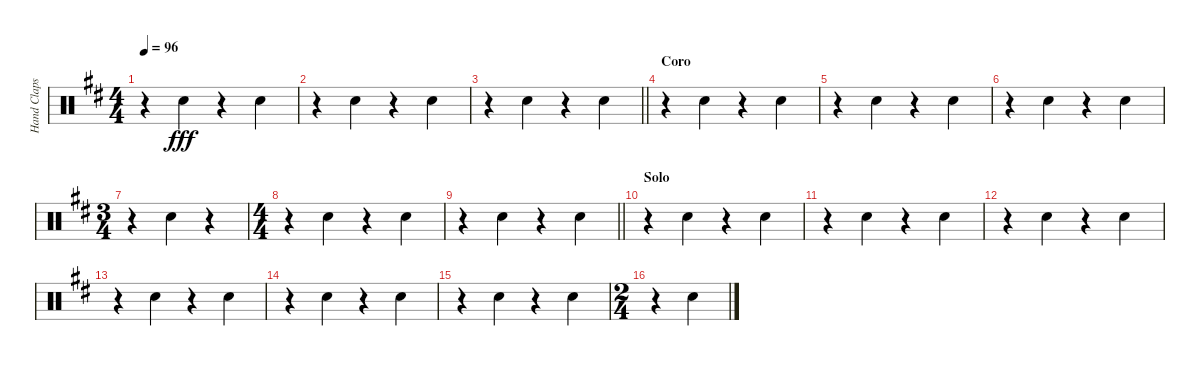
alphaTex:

\track ("Hand Claps" "Hand Claps") {instrument percussion}
\staff {score}
\articulation defaults
\ts (4 4)
\tempo 96
\clef neutral
\ks d
r.4{dy fff} "Hand Clap (hit)".4 r.4 "Hand Clap (hit)".4 |
r.4 "Hand Clap (hit)".4 r.4 "Hand Clap (hit)".4 |
\barLineRight lightlight
r.4 "Hand Clap (hit)".4 r.4 "Hand Clap (hit)".4 |
\section ("" "Coro")
r.4 "Hand Clap (hit)".4 r.4 "Hand Clap (hit)".4 |
r.4 "Hand Clap (hit)".4 r.4 "Hand Clap (hit)".4 |
r.4 "Hand Clap (hit)".4 r.4 "Hand Clap (hit)".4 |
\ts (3 4)
r.4 "Hand Clap (hit)".4 r.4 |
\ts (4 4)
r.4 "Hand Clap (hit)".4 r.4 "Hand Clap (hit)".4 |
\barLineRight lightlight
r.4 "Hand Clap (hit)".4 r.4 "Hand Clap (hit)".4 |
\section ("" "Solo")
r.4 "Hand Clap (hit)".4 r.4 "Hand Clap (hit)".4 |
r.4 "Hand Clap (hit)".4 r.4 "Hand Clap (hit)".4 |
r.4 "Hand Clap (hit)".4 r.4 "Hand Clap (hit)".4 |
r.4 "Hand Clap (hit)".4 r.4 "Hand Clap (hit)".4 |
r.4 "Hand Clap (hit)".4 r.4 "Hand Clap (hit)".4 |
r.4 "Hand Clap (hit)".4 r.4 "Hand Clap (hit)".4 |
\ts (2 4)
r.4 "Hand Clap (hit)".4
